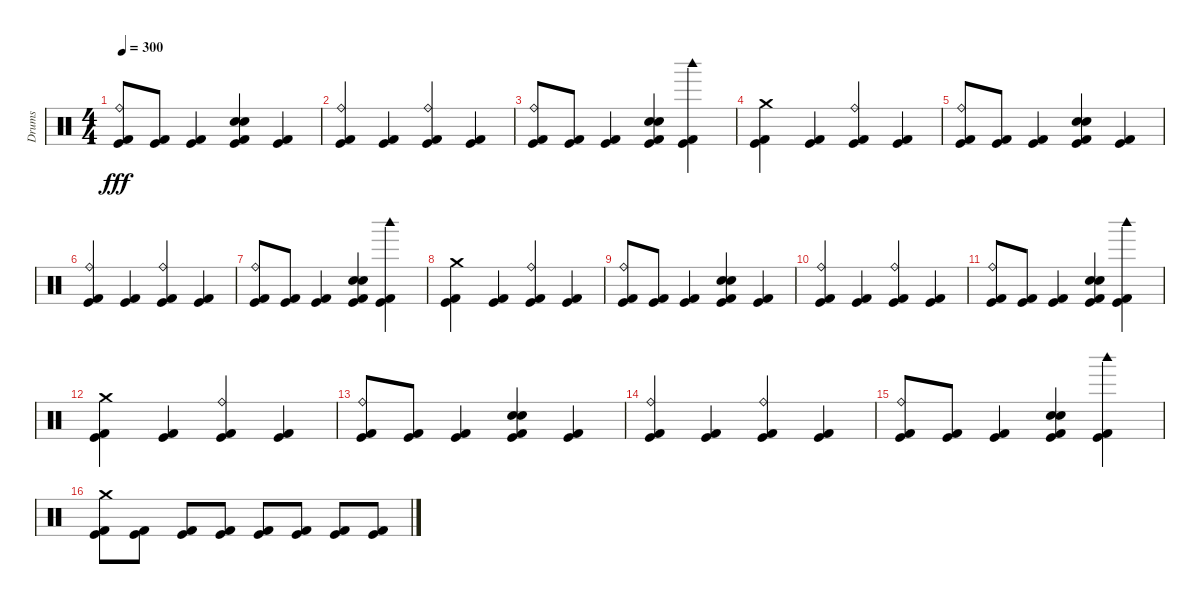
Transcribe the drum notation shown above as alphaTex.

\track ("Drums" "Drums") {instrument percussion}
\staff {score}
\articulation defaults
\ts (4 4)
\tempo 300
\clef neutral
\ks c
("Kick (hit) 2" "Ride (bell)" "Kick (hit)").8{dy fff} ("Kick (hit) 2" "Kick (hit)").8 ("Kick (hit) 2" "Kick (hit)").4 ("Kick (hit) 2" "Snare (hit) 2" "Electric Snare (hit)" "Kick (hit)").4 ("Kick (hit) 2" "Kick (hit)").4 |
("Kick (hit) 2" "Ride (bell)" "Kick (hit)").4 ("Kick (hit) 2" "Kick (hit)").4 ("Kick (hit) 2" "Ride (bell)" "Kick (hit)").4 ("Kick (hit) 2" "Kick (hit)").4 |
("Kick (hit) 2" "Ride (bell)" "Kick (hit)").8 ("Kick (hit) 2" "Kick (hit)").8 ("Kick (hit) 2" "Kick (hit)").4 ("Kick (hit) 2" "Electric Snare (hit)" "Snare (hit) 2" "Kick (hit)").4 ("Kick (hit) 2" "Kick (hit)" "Woodblock high (hit)").4 |
("Crash medium (hit)" "Kick (hit) 2" "Kick (hit)").4 ("Kick (hit) 2" "Kick (hit)").4 ("Kick (hit) 2" "Ride (bell)" "Kick (hit)").4 ("Kick (hit) 2" "Kick (hit)").4 |
("Kick (hit) 2" "Ride (bell)" "Kick (hit)").8 ("Kick (hit) 2" "Kick (hit)").8 ("Kick (hit) 2" "Kick (hit)").4 ("Kick (hit) 2" "Snare (hit) 2" "Electric Snare (hit)" "Kick (hit)").4 ("Kick (hit) 2" "Kick (hit)").4 |
("Kick (hit) 2" "Ride (bell)" "Kick (hit)").4 ("Kick (hit) 2" "Kick (hit)").4 ("Kick (hit) 2" "Ride (bell)" "Kick (hit)").4 ("Kick (hit) 2" "Kick (hit)").4 |
("Kick (hit) 2" "Ride (bell)" "Kick (hit)").8 ("Kick (hit) 2" "Kick (hit)").8 ("Kick (hit) 2" "Kick (hit)").4 ("Kick (hit) 2" "Electric Snare (hit)" "Snare (hit) 2" "Kick (hit)").4 ("Kick (hit) 2" "Kick (hit)" "Woodblock high (hit)").4 |
("Crash medium (hit)" "Kick (hit) 2" "Kick (hit)").4 ("Kick (hit) 2" "Kick (hit)").4 ("Kick (hit) 2" "Ride (bell)" "Kick (hit)").4 ("Kick (hit) 2" "Kick (hit)").4 |
("Kick (hit) 2" "Ride (bell)" "Kick (hit)").8 ("Kick (hit) 2" "Kick (hit)").8 ("Kick (hit) 2" "Kick (hit)").4 ("Kick (hit) 2" "Snare (hit) 2" "Electric Snare (hit)" "Kick (hit)").4 ("Kick (hit) 2" "Kick (hit)").4 |
("Kick (hit) 2" "Ride (bell)" "Kick (hit)").4 ("Kick (hit) 2" "Kick (hit)").4 ("Kick (hit) 2" "Ride (bell)" "Kick (hit)").4 ("Kick (hit) 2" "Kick (hit)").4 |
("Kick (hit) 2" "Ride (bell)" "Kick (hit)").8 ("Kick (hit) 2" "Kick (hit)").8 ("Kick (hit) 2" "Kick (hit)").4 ("Kick (hit) 2" "Electric Snare (hit)" "Snare (hit) 2" "Kick (hit)").4 ("Kick (hit) 2" "Kick (hit)" "Woodblock high (hit)").4 |
("Crash medium (hit)" "Kick (hit) 2" "Kick (hit)").4 ("Kick (hit) 2" "Kick (hit)").4 ("Kick (hit) 2" "Ride (bell)" "Kick (hit)").4 ("Kick (hit) 2" "Kick (hit)").4 |
("Kick (hit) 2" "Ride (bell)" "Kick (hit)").8 ("Kick (hit) 2" "Kick (hit)").8 ("Kick (hit) 2" "Kick (hit)").4 ("Kick (hit) 2" "Snare (hit) 2" "Electric Snare (hit)" "Kick (hit)").4 ("Kick (hit) 2" "Kick (hit)").4 |
("Kick (hit) 2" "Ride (bell)" "Kick (hit)").4 ("Kick (hit) 2" "Kick (hit)").4 ("Kick (hit) 2" "Ride (bell)" "Kick (hit)").4 ("Kick (hit) 2" "Kick (hit)").4 |
("Kick (hit) 2" "Ride (bell)" "Kick (hit)").8 ("Kick (hit) 2" "Kick (hit)").8 ("Kick (hit) 2" "Kick (hit)").4 ("Kick (hit) 2" "Electric Snare (hit)" "Snare (hit) 2" "Kick (hit)").4 ("Kick (hit) 2" "Kick (hit)" "Woodblock high (hit)").4 |
("Kick (hit) 2" "Crash medium (hit)" "Kick (hit)").8 ("Kick (hit) 2" "Kick (hit)").8 ("Kick (hit) 2" "Kick (hit)").8 ("Kick (hit) 2" "Kick (hit)").8 ("Kick (hit) 2" "Kick (hit)").8 ("Kick (hit) 2" "Kick (hit)").8 ("Kick (hit) 2" "Kick (hit)").8 ("Kick (hit) 2" "Kick (hit)").8
